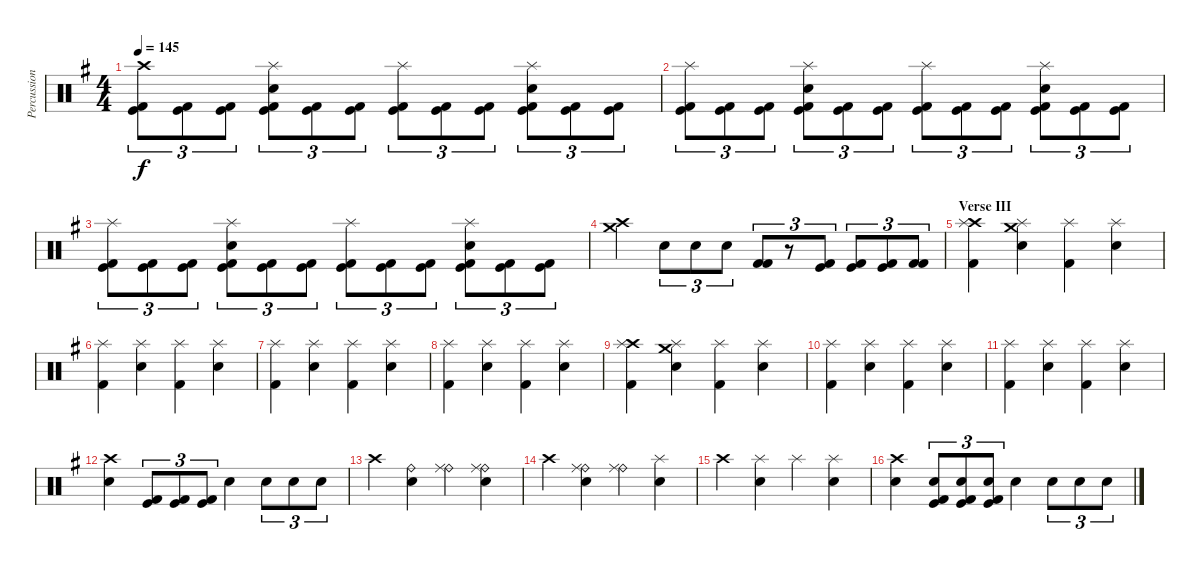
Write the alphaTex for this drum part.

\track ("Percussion" "Percussion") {instrument percussion}
\staff {score}
\articulation defaults
\ts (4 4)
\tempo 145
\clef neutral
\ks eminor
("Crash high (hit)" "Kick (hit)" "Kick (hit) 2").8{tu (3 2) dy f} ("Kick (hit)" "Kick (hit) 2").8{tu (3 2)} ("Kick (hit)" "Kick (hit) 2").8{tu (3 2)} ("Electric Snare (hit)" "Splash (hit)" "Kick (hit)" "Kick (hit) 2").8{tu (3 2)} ("Kick (hit)" "Kick (hit) 2").8{tu (3 2)} ("Kick (hit)" "Kick (hit) 2").8{tu (3 2)} ("Splash (hit)" "Kick (hit)" "Kick (hit) 2").8{tu (3 2)} ("Kick (hit)" "Kick (hit) 2").8{tu (3 2)} ("Kick (hit)" "Kick (hit) 2").8{tu (3 2)} ("Electric Snare (hit)" "Splash (hit)" "Kick (hit)" "Kick (hit) 2").8{tu (3 2)} ("Kick (hit)" "Kick (hit) 2").8{tu (3 2)} ("Kick (hit)" "Kick (hit) 2").8{tu (3 2)} |
("Splash (hit)" "Kick (hit)" "Kick (hit) 2").8{tu (3 2)} ("Kick (hit)" "Kick (hit) 2").8{tu (3 2)} ("Kick (hit)" "Kick (hit) 2").8{tu (3 2)} ("Electric Snare (hit)" "Splash (hit)" "Kick (hit)" "Kick (hit) 2").8{tu (3 2)} ("Kick (hit)" "Kick (hit) 2").8{tu (3 2)} ("Kick (hit)" "Kick (hit) 2").8{tu (3 2)} ("Splash (hit)" "Kick (hit)" "Kick (hit) 2").8{tu (3 2)} ("Kick (hit)" "Kick (hit) 2").8{tu (3 2)} ("Kick (hit)" "Kick (hit) 2").8{tu (3 2)} ("Electric Snare (hit)" "Splash (hit)" "Kick (hit)" "Kick (hit) 2").8{tu (3 2)} ("Kick (hit)" "Kick (hit) 2").8{tu (3 2)} ("Kick (hit)" "Kick (hit) 2").8{tu (3 2)} |
("Splash (hit)" "Kick (hit)" "Kick (hit) 2").8{tu (3 2)} ("Kick (hit)" "Kick (hit) 2").8{tu (3 2)} ("Kick (hit)" "Kick (hit) 2").8{tu (3 2)} ("Electric Snare (hit)" "Splash (hit)" "Kick (hit)" "Kick (hit) 2").8{tu (3 2)} ("Kick (hit)" "Kick (hit) 2").8{tu (3 2)} ("Kick (hit)" "Kick (hit) 2").8{tu (3 2)} ("Splash (hit)" "Kick (hit)" "Kick (hit) 2").8{tu (3 2)} ("Kick (hit)" "Kick (hit) 2").8{tu (3 2)} ("Kick (hit)" "Kick (hit) 2").8{tu (3 2)} ("Electric Snare (hit)" "Splash (hit)" "Kick (hit)" "Kick (hit) 2").8{tu (3 2)} ("Kick (hit)" "Kick (hit) 2").8{tu (3 2)} ("Kick (hit)" "Kick (hit) 2").8{tu (3 2)} |
("Crash medium (hit)" "Crash high (hit)").4 "Electric Snare (hit)".8{tu (3 2)} "Electric Snare (hit)".8{tu (3 2)} "Electric Snare (hit)".8{tu (3 2)} ("Kick (hit) 2" "Kick (hit) 2").8{tu (3 2)} r.8{tu (3 2)} ("Kick (hit)" "Kick (hit) 2").8{tu (3 2)} ("Kick (hit)" "Kick (hit) 2").8{tu (3 2)} ("Kick (hit)" "Kick (hit) 2").8{tu (3 2)} ("Kick (hit) 2" "Kick (hit) 2").8{tu (3 2)} |
\section ("" "Verse III")
("Crash high (hit)" "Splash (hit)" "Kick (hit) 2").4 ("Crash medium (hit)" "Electric Snare (hit)" "Splash (hit)").4 ("Splash (hit)" "Kick (hit) 2").4 ("Electric Snare (hit)" "Splash (hit)").4 |
("Splash (hit)" "Kick (hit) 2").4 ("Electric Snare (hit)" "Splash (hit)").4 ("Splash (hit)" "Kick (hit) 2").4 ("Electric Snare (hit)" "Splash (hit)").4 |
("Splash (hit)" "Kick (hit) 2").4 ("Electric Snare (hit)" "Splash (hit)").4 ("Splash (hit)" "Kick (hit) 2").4 ("Electric Snare (hit)" "Splash (hit)").4 |
("Splash (hit)" "Kick (hit) 2").4 ("Electric Snare (hit)" "Splash (hit)").4 ("Splash (hit)" "Kick (hit) 2").4 ("Electric Snare (hit)" "Splash (hit)").4 |
("Crash high (hit)" "Splash (hit)" "Kick (hit) 2").4 ("Crash medium (hit)" "Electric Snare (hit)" "Splash (hit)").4 ("Splash (hit)" "Kick (hit) 2").4 ("Electric Snare (hit)" "Splash (hit)").4 |
("Splash (hit)" "Kick (hit) 2").4 ("Electric Snare (hit)" "Splash (hit)").4 ("Splash (hit)" "Kick (hit) 2").4 ("Electric Snare (hit)" "Splash (hit)").4 |
("Splash (hit)" "Kick (hit) 2").4 ("Electric Snare (hit)" "Splash (hit)").4 ("Splash (hit)" "Kick (hit) 2").4 ("Electric Snare (hit)" "Splash (hit)").4 |
("Crash high (hit)" "Electric Snare (hit)").4 ("Kick (hit)" "Kick (hit) 2").8{tu (3 2)} ("Kick (hit)" "Kick (hit) 2").8{tu (3 2)} ("Kick (hit)" "Kick (hit) 2").8{tu (3 2)} "Electric Snare (hit)".4 "Electric Snare (hit)".8{tu (3 2)} "Electric Snare (hit)".8{tu (3 2)} "Electric Snare (hit)".8{tu (3 2)} |
"Crash high (hit)".4 ("Ride (bell)" "Electric Snare (hit)").4 ("Ride (bell)" "Ride (middle)").4 ("Ride (bell)" "Ride (middle)" "Electric Snare (hit)").4 |
"Crash high (hit)".4 ("Ride (bell)" "Ride (middle)" "Electric Snare (hit)").4 ("Ride (bell)" "Ride (middle)").4 ("Splash (hit)" "Electric Snare (hit)").4 |
"Crash high (hit)".4 ("Splash (hit)" "Electric Snare (hit)").4 "Splash (hit)".4 ("Splash (hit)" "Electric Snare (hit)").4 |
("Crash high (hit)" "Electric Snare (hit)").4 ("Kick (hit)" "Kick (hit) 2" "Snare (hit) 2").8{tu (3 2)} ("Kick (hit)" "Kick (hit) 2" "Snare (hit) 2").8{tu (3 2)} ("Kick (hit)" "Kick (hit) 2" "Snare (hit) 2").8{tu (3 2)} "Electric Snare (hit)".4 "Electric Snare (hit)".8{tu (3 2)} "Electric Snare (hit)".8{tu (3 2)} "Electric Snare (hit)".8{tu (3 2)}
